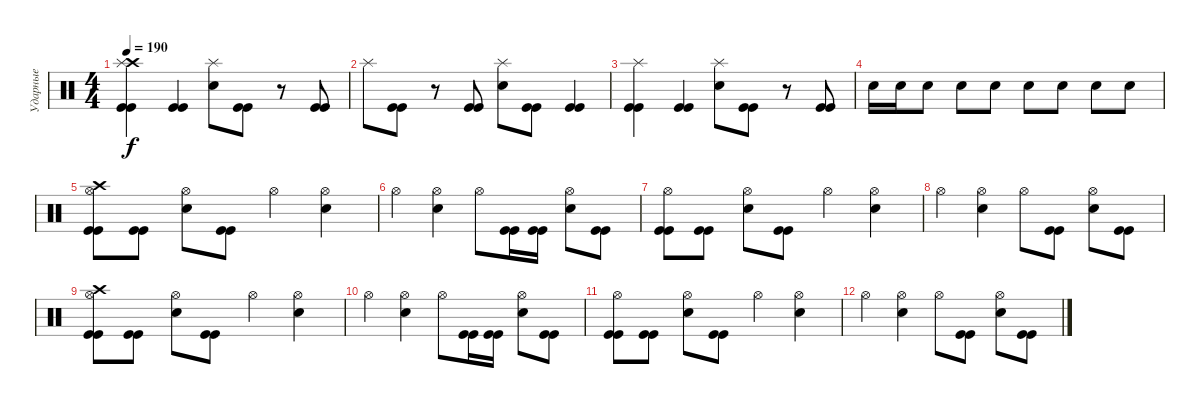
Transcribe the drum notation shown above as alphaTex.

\track ("Ударные" "Ударные") {instrument percussion}
\staff {score}
\articulation defaults
\ts (4 4)
\tempo 190
\clef neutral
\ks c
("Crash high (hit)" "Splash (hit)" "Kick (hit)" "Kick (hit)").4{dy f} ("Kick (hit)" "Kick (hit)").4 ("Splash (hit)" "Electric Snare (hit)").8 ("Kick (hit)" "Kick (hit)").8 r.8 ("Kick (hit)" "Kick (hit)").8 |
"Splash (hit)".8 ("Kick (hit)" "Kick (hit)").8 r.8 ("Kick (hit)" "Kick (hit)").8 ("Splash (hit)" "Electric Snare (hit)").8 ("Kick (hit)" "Kick (hit)").8 ("Kick (hit)" "Kick (hit)").4 |
("Splash (hit)" "Kick (hit)" "Kick (hit)").4 ("Kick (hit)" "Kick (hit)").4 ("Splash (hit)" "Electric Snare (hit)").8 ("Kick (hit)" "Kick (hit)").8 r.8 ("Kick (hit)" "Kick (hit)").8 |
"Electric Snare (hit)".16 "Electric Snare (hit)".16 "Electric Snare (hit)".8 "Electric Snare (hit)".8 "Electric Snare (hit)".8 "Electric Snare (hit)".8 "Electric Snare (hit)".8 "Electric Snare (hit)".8 "Electric Snare (hit)".8 |
("Crash high (hit)" "Hi-Hat (open)" "Kick (hit)" "Kick (hit)").8 ("Kick (hit)" "Kick (hit)").8 ("Hi-Hat (open)" "Electric Snare (hit)").8 ("Kick (hit)" "Kick (hit)").8 "Hi-Hat (open)".4 ("Hi-Hat (open)" "Electric Snare (hit)").4 |
"Hi-Hat (open)".4 ("Hi-Hat (open)" "Electric Snare (hit)").4 "Hi-Hat (open)".8 ("Kick (hit)" "Kick (hit)").16 ("Kick (hit)" "Kick (hit)").16 ("Hi-Hat (open)" "Electric Snare (hit)").8 ("Kick (hit)" "Kick (hit)").8 |
("Hi-Hat (open)" "Kick (hit)" "Kick (hit)").8 ("Kick (hit)" "Kick (hit)").8 ("Hi-Hat (open)" "Electric Snare (hit)").8 ("Kick (hit)" "Kick (hit)").8 "Hi-Hat (open)".4 ("Hi-Hat (open)" "Electric Snare (hit)").4 |
"Hi-Hat (open)".4 ("Hi-Hat (open)" "Electric Snare (hit)").4 "Hi-Hat (open)".8 ("Kick (hit)" "Kick (hit)").8 ("Hi-Hat (open)" "Electric Snare (hit)").8 ("Kick (hit)" "Kick (hit)").8 |
("Crash high (hit)" "Hi-Hat (open)" "Kick (hit)" "Kick (hit)").8 ("Kick (hit)" "Kick (hit)").8 ("Hi-Hat (open)" "Electric Snare (hit)").8 ("Kick (hit)" "Kick (hit)").8 "Hi-Hat (open)".4 ("Hi-Hat (open)" "Electric Snare (hit)").4 |
"Hi-Hat (open)".4 ("Hi-Hat (open)" "Electric Snare (hit)").4 "Hi-Hat (open)".8 ("Kick (hit)" "Kick (hit)").16 ("Kick (hit)" "Kick (hit)").16 ("Hi-Hat (open)" "Electric Snare (hit)").8 ("Kick (hit)" "Kick (hit)").8 |
("Hi-Hat (open)" "Kick (hit)" "Kick (hit)").8 ("Kick (hit)" "Kick (hit)").8 ("Hi-Hat (open)" "Electric Snare (hit)").8 ("Kick (hit)" "Kick (hit)").8 "Hi-Hat (open)".4 ("Hi-Hat (open)" "Electric Snare (hit)").4 |
"Hi-Hat (open)".4 ("Hi-Hat (open)" "Electric Snare (hit)").4 "Hi-Hat (open)".8 ("Kick (hit)" "Kick (hit)").8 ("Hi-Hat (open)" "Electric Snare (hit)").8 ("Kick (hit)" "Kick (hit)").8
